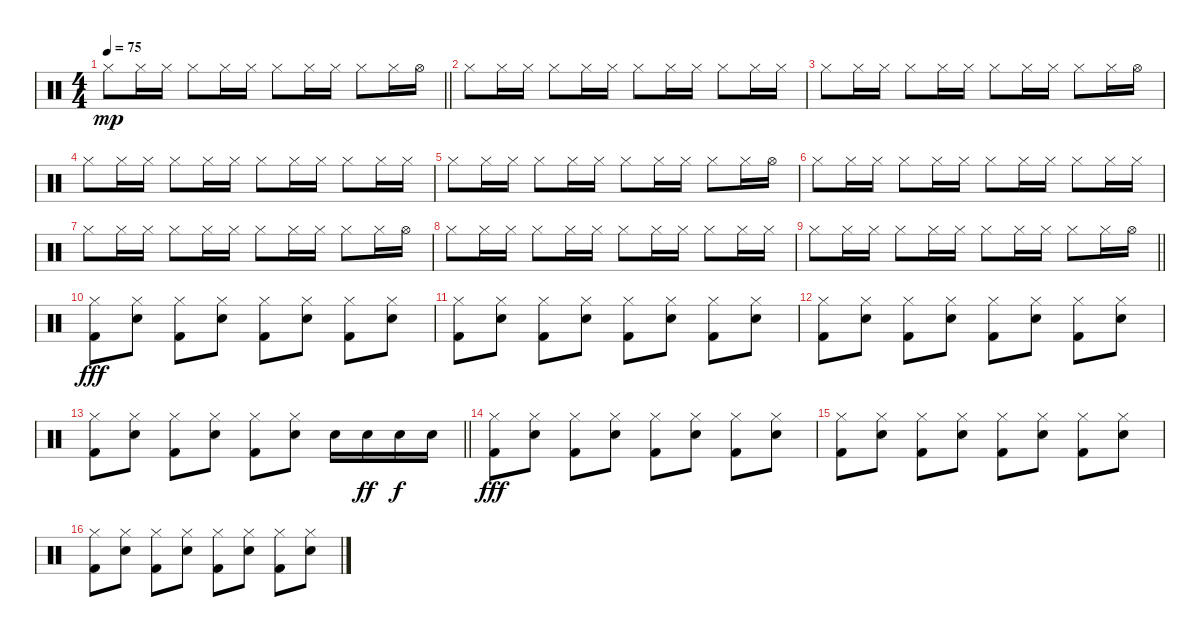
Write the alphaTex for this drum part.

\track "" {instrument percussion}
\staff {score}
\articulation defaults
\ts (4 4)
\tempo 75
\clef neutral
\barLineRight lightlight
\ks c "Hi-Hat (closed)".8{dy mp} "Hi-Hat (closed)".16 "Hi-Hat (closed)".16 "Hi-Hat (closed)".8 "Hi-Hat (closed)".16 "Hi-Hat (closed)".16 "Hi-Hat (closed)".8 "Hi-Hat (closed)".16 "Hi-Hat (closed)".16 "Hi-Hat (closed)".8 "Hi-Hat (closed)".16 "Hi-Hat (open)".16
|
\section ("" "")
"Hi-Hat (closed)".8 "Hi-Hat (closed)".16 "Hi-Hat (closed)".16 "Hi-Hat (closed)".8 "Hi-Hat (closed)".16 "Hi-Hat (closed)".16 "Hi-Hat (closed)".8 "Hi-Hat (closed)".16 "Hi-Hat (closed)".16 "Hi-Hat (closed)".8 "Hi-Hat (closed)".16 "Hi-Hat (closed)".16 |
"Hi-Hat (closed)".8 "Hi-Hat (closed)".16 "Hi-Hat (closed)".16 "Hi-Hat (closed)".8 "Hi-Hat (closed)".16 "Hi-Hat (closed)".16 "Hi-Hat (closed)".8 "Hi-Hat (closed)".16 "Hi-Hat (closed)".16 "Hi-Hat (closed)".8 "Hi-Hat (closed)".16 "Hi-Hat (open)".16 |
"Hi-Hat (closed)".8 "Hi-Hat (closed)".16 "Hi-Hat (closed)".16 "Hi-Hat (closed)".8 "Hi-Hat (closed)".16 "Hi-Hat (closed)".16 "Hi-Hat (closed)".8 "Hi-Hat (closed)".16 "Hi-Hat (closed)".16 "Hi-Hat (closed)".8 "Hi-Hat (closed)".16 "Hi-Hat (closed)".16 |
"Hi-Hat (closed)".8 "Hi-Hat (closed)".16 "Hi-Hat (closed)".16 "Hi-Hat (closed)".8 "Hi-Hat (closed)".16 "Hi-Hat (closed)".16 "Hi-Hat (closed)".8 "Hi-Hat (closed)".16 "Hi-Hat (closed)".16 "Hi-Hat (closed)".8 "Hi-Hat (closed)".16 "Hi-Hat (open)".16 |
"Hi-Hat (closed)".8 "Hi-Hat (closed)".16 "Hi-Hat (closed)".16 "Hi-Hat (closed)".8 "Hi-Hat (closed)".16 "Hi-Hat (closed)".16 "Hi-Hat (closed)".8 "Hi-Hat (closed)".16 "Hi-Hat (closed)".16 "Hi-Hat (closed)".8 "Hi-Hat (closed)".16 "Hi-Hat (closed)".16 |
"Hi-Hat (closed)".8 "Hi-Hat (closed)".16 "Hi-Hat (closed)".16 "Hi-Hat (closed)".8 "Hi-Hat (closed)".16 "Hi-Hat (closed)".16 "Hi-Hat (closed)".8 "Hi-Hat (closed)".16 "Hi-Hat (closed)".16 "Hi-Hat (closed)".8 "Hi-Hat (closed)".16 "Hi-Hat (open)".16 |
"Hi-Hat (closed)".8 "Hi-Hat (closed)".16 "Hi-Hat (closed)".16 "Hi-Hat (closed)".8 "Hi-Hat (closed)".16 "Hi-Hat (closed)".16 "Hi-Hat (closed)".8 "Hi-Hat (closed)".16 "Hi-Hat (closed)".16 "Hi-Hat (closed)".8 "Hi-Hat (closed)".16 "Hi-Hat (closed)".16 |
\barLineRight lightlight "Hi-Hat (closed)".8 "Hi-Hat (closed)".16 "Hi-Hat (closed)".16 "Hi-Hat (closed)".8 "Hi-Hat (closed)".16 "Hi-Hat (closed)".16 "Hi-Hat (closed)".8 "Hi-Hat (closed)".16 "Hi-Hat (closed)".16 "Hi-Hat (closed)".8 "Hi-Hat (closed)".16 "Hi-Hat (open)".16
|
\section ("" "")
("Hi-Hat (closed)" "Kick (hit) 2").8{dy fff} ("Hi-Hat (closed)" "Snare (hit) 2").8 ("Hi-Hat (closed)" "Kick (hit) 2").8 ("Hi-Hat (closed)" "Snare (hit) 2").8 ("Hi-Hat (closed)" "Kick (hit) 2").8 ("Hi-Hat (closed)" "Snare (hit) 2").8 ("Hi-Hat (closed)" "Kick (hit) 2").8 ("Hi-Hat (closed)" "Snare (hit) 2").8 |
("Hi-Hat (closed)" "Kick (hit) 2").8 ("Hi-Hat (closed)" "Snare (hit) 2").8 ("Hi-Hat (closed)" "Kick (hit) 2").8 ("Hi-Hat (closed)" "Snare (hit) 2").8 ("Hi-Hat (closed)" "Kick (hit) 2").8 ("Hi-Hat (closed)" "Snare (hit) 2").8 ("Hi-Hat (closed)" "Kick (hit) 2").8 ("Hi-Hat (closed)" "Snare (hit) 2").8 |
("Hi-Hat (closed)" "Kick (hit) 2").8 ("Hi-Hat (closed)" "Snare (hit) 2").8 ("Hi-Hat (closed)" "Kick (hit) 2").8 ("Hi-Hat (closed)" "Snare (hit) 2").8 ("Hi-Hat (closed)" "Kick (hit) 2").8 ("Hi-Hat (closed)" "Snare (hit) 2").8 ("Hi-Hat (closed)" "Kick (hit) 2").8 ("Hi-Hat (closed)" "Snare (hit) 2").8 |
\barLineRight lightlight
("Hi-Hat (closed)" "Kick (hit) 2").8 ("Hi-Hat (closed)" "Snare (hit) 2").8 ("Hi-Hat (closed)" "Kick (hit) 2").8 ("Hi-Hat (closed)" "Snare (hit) 2").8 ("Hi-Hat (closed)" "Kick (hit) 2").8 ("Hi-Hat (closed)" "Snare (hit) 2").8 "Snare (hit) 2".16 "Snare (hit) 2".16{dy ff} "Snare (hit) 2".16{dy f} "Snare (hit) 2".16 |
("Hi-Hat (closed)" "Kick (hit) 2").8{dy fff} ("Hi-Hat (closed)" "Snare (hit) 2").8 ("Hi-Hat (closed)" "Kick (hit) 2").8 ("Hi-Hat (closed)" "Snare (hit) 2").8 ("Hi-Hat (closed)" "Kick (hit) 2").8 ("Hi-Hat (closed)" "Snare (hit) 2").8 ("Hi-Hat (closed)" "Kick (hit) 2").8 ("Hi-Hat (closed)" "Snare (hit) 2").8 |
("Hi-Hat (closed)" "Kick (hit) 2").8 ("Hi-Hat (closed)" "Snare (hit) 2").8 ("Hi-Hat (closed)" "Kick (hit) 2").8 ("Hi-Hat (closed)" "Snare (hit) 2").8 ("Hi-Hat (closed)" "Kick (hit) 2").8 ("Hi-Hat (closed)" "Snare (hit) 2").8 ("Hi-Hat (closed)" "Kick (hit) 2").8 ("Hi-Hat (closed)" "Snare (hit) 2").8 |
("Hi-Hat (closed)" "Kick (hit) 2").8 ("Hi-Hat (closed)" "Snare (hit) 2").8 ("Hi-Hat (closed)" "Kick (hit) 2").8 ("Hi-Hat (closed)" "Snare (hit) 2").8 ("Hi-Hat (closed)" "Kick (hit) 2").8 ("Hi-Hat (closed)" "Snare (hit) 2").8 ("Hi-Hat (closed)" "Kick (hit) 2").8 ("Hi-Hat (closed)" "Snare (hit) 2").8
